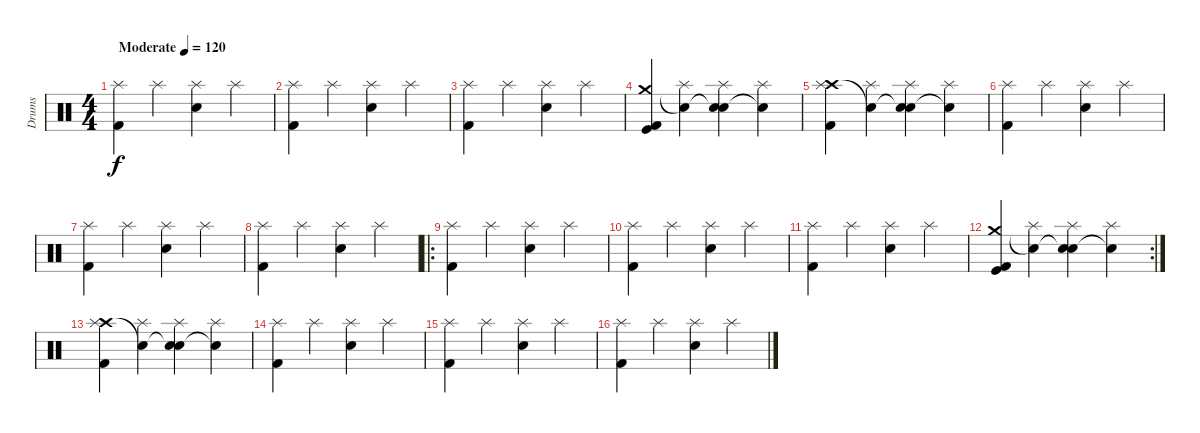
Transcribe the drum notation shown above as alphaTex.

\track ("Drums" "Drums") {instrument percussion}
\staff {score}
\articulation defaults
\ts (4 4)
\tempo (120 "Moderate")
\clef neutral
\ks c
("Splash (hit)" "Kick (hit) 2").4{dy f} "Splash (hit)".4 ("Splash (hit)" "Snare (hit) 2").4 "Splash (hit)".4 |
("Splash (hit)" "Kick (hit) 2").4 "Splash (hit)".4 ("Splash (hit)" "Snare (hit) 2").4 "Splash (hit)".4 |
("Splash (hit)" "Kick (hit) 2").4 "Splash (hit)".4 ("Splash (hit)" "Snare (hit) 2").4 "Splash (hit)".4 |
("Crash medium (hit)" "Kick (hit)" "Kick (hit) 2").4 ("Snare (hit)"{t} "Splash (hit)").4 ("Snare (hit)"{t} "Splash (hit)" "Snare (hit) 2").4 ("Snare (hit)"{t} "Splash (hit)").4 |
("Crash high (hit)" "Splash (hit)" "Kick (hit) 2").4 ("Snare (hit)"{t} "Splash (hit)").4 ("Snare (hit)"{t} "Splash (hit)" "Snare (hit) 2").4 ("Snare (hit)"{t} "Splash (hit)").4 |
("Splash (hit)" "Kick (hit) 2").4 "Splash (hit)".4 ("Splash (hit)" "Snare (hit) 2").4 "Splash (hit)".4 |
("Splash (hit)" "Kick (hit) 2").4 "Splash (hit)".4 ("Splash (hit)" "Snare (hit) 2").4 "Splash (hit)".4 |
("Splash (hit)" "Kick (hit) 2").4 "Splash (hit)".4 ("Splash (hit)" "Snare (hit) 2").4 "Splash (hit)".4 |
\ro
("Splash (hit)" "Kick (hit) 2").4 "Splash (hit)".4 ("Splash (hit)" "Snare (hit) 2").4 "Splash (hit)".4 |
("Splash (hit)" "Kick (hit) 2").4 "Splash (hit)".4 ("Splash (hit)" "Snare (hit) 2").4 "Splash (hit)".4 |
("Splash (hit)" "Kick (hit) 2").4 "Splash (hit)".4 ("Splash (hit)" "Snare (hit) 2").4 "Splash (hit)".4 |
\rc 2
("Crash medium (hit)" "Kick (hit)" "Kick (hit) 2").4 ("Snare (hit)"{t} "Splash (hit)").4 ("Snare (hit)"{t} "Splash (hit)" "Snare (hit) 2").4 ("Snare (hit)"{t} "Splash (hit)").4 |
("Crash high (hit)" "Splash (hit)" "Kick (hit) 2").4 ("Snare (hit)"{t} "Splash (hit)").4 ("Snare (hit)"{t} "Splash (hit)" "Snare (hit) 2").4 ("Snare (hit)"{t} "Splash (hit)").4 |
("Splash (hit)" "Kick (hit) 2").4 "Splash (hit)".4 ("Splash (hit)" "Snare (hit) 2").4 "Splash (hit)".4 |
("Splash (hit)" "Kick (hit) 2").4 "Splash (hit)".4 ("Splash (hit)" "Snare (hit) 2").4 "Splash (hit)".4 |
("Splash (hit)" "Kick (hit) 2").4 "Splash (hit)".4 ("Splash (hit)" "Snare (hit) 2").4 "Splash (hit)".4
